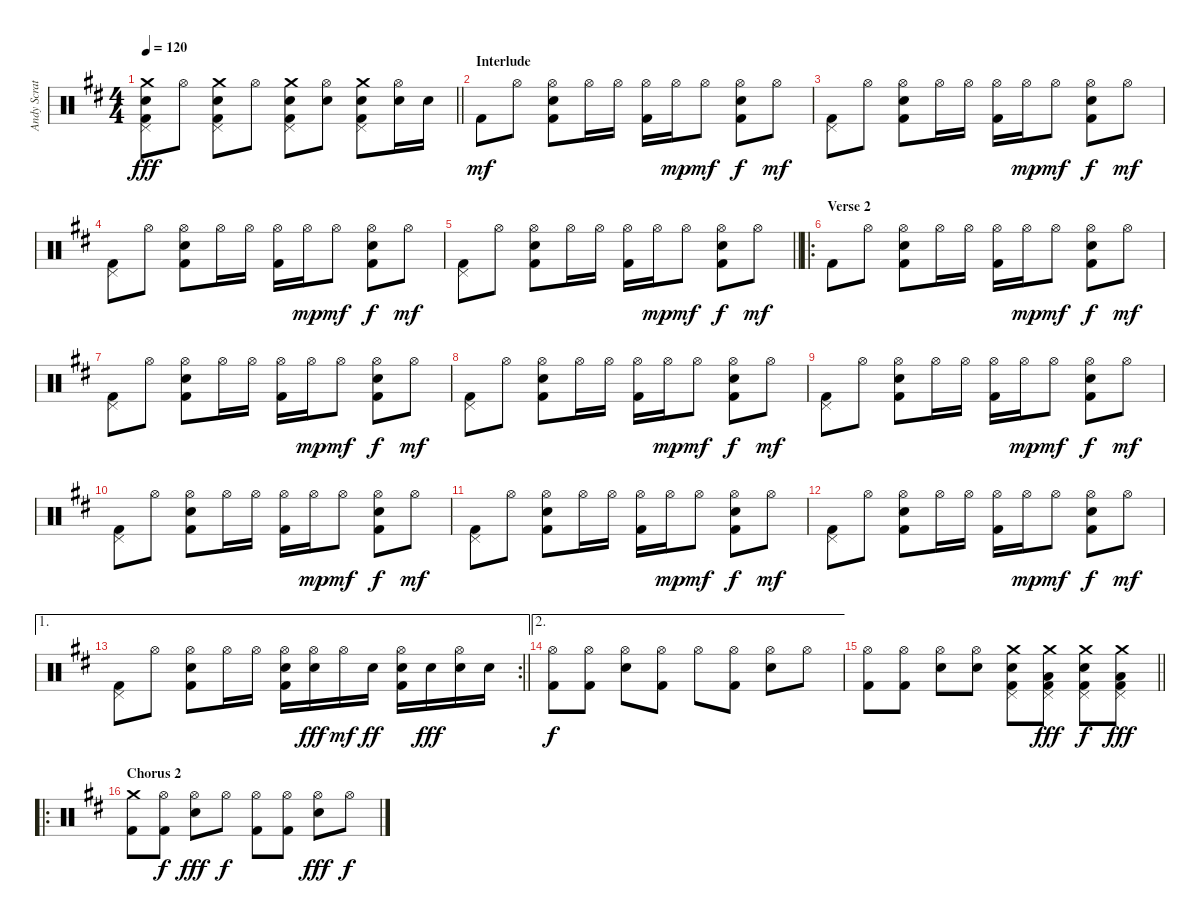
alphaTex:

\track ("Andy Scratchen (Drums)" "Andy Scrat") {instrument percussion}
\staff {score}
\articulation defaults
\ts (4 4)
\tempo 120
\clef neutral
\barLineRight lightlight
\ks bminor
("Crash medium (hit)" "Pedal Hi-Hat (hit)" "Snare (hit) 2" "Kick (hit) 2").8{dy fff} "Hi-Hat (open)".8 ("Crash medium (hit)" "Pedal Hi-Hat (hit)" "Snare (hit) 2" "Kick (hit) 2").8 "Hi-Hat (open)".8 ("Crash medium (hit)" "Pedal Hi-Hat (hit)" "Snare (hit) 2" "Kick (hit) 2").8 ("Hi-Hat (open)" "Snare (hit) 2").8 ("Crash medium (hit)" "Pedal Hi-Hat (hit)" "Snare (hit) 2" "Kick (hit) 2").8 ("Hi-Hat (open)" "Snare (hit) 2").16 "Snare (hit) 2".16 |
\section ("" "Interlude")
"Kick (hit) 2".8{dy mf} "Hi-Hat (open)".8 ("Hi-Hat (open)" "Snare (hit) 2" "Kick (hit) 2").8 "Hi-Hat (open)".16 "Hi-Hat (open)".16 ("Hi-Hat (open)" "Kick (hit) 2").16 "Hi-Hat (open)".16{dy mp} "Hi-Hat (open)".8{dy mf} ("Hi-Hat (open)" "Snare (hit) 2" "Kick (hit) 2").8{dy f} "Hi-Hat (open)".8{dy mf} |
("Pedal Hi-Hat (hit)" "Kick (hit) 2").8 "Hi-Hat (open)".8 ("Hi-Hat (open)" "Snare (hit) 2" "Kick (hit) 2").8 "Hi-Hat (open)".16 "Hi-Hat (open)".16 ("Hi-Hat (open)" "Kick (hit) 2").16 "Hi-Hat (open)".16{dy mp} "Hi-Hat (open)".8{dy mf} ("Hi-Hat (open)" "Snare (hit) 2" "Kick (hit) 2").8{dy f} "Hi-Hat (open)".8{dy mf} |
("Pedal Hi-Hat (hit)" "Kick (hit) 2").8 "Hi-Hat (open)".8 ("Hi-Hat (open)" "Snare (hit) 2" "Kick (hit) 2").8 "Hi-Hat (open)".16 "Hi-Hat (open)".16 ("Hi-Hat (open)" "Kick (hit) 2").16 "Hi-Hat (open)".16{dy mp} "Hi-Hat (open)".8{dy mf} ("Hi-Hat (open)" "Snare (hit) 2" "Kick (hit) 2").8{dy f} "Hi-Hat (open)".8{dy mf} |
\barLineRight lightlight
("Pedal Hi-Hat (hit)" "Kick (hit) 2").8 "Hi-Hat (open)".8 ("Hi-Hat (open)" "Snare (hit) 2" "Kick (hit) 2").8 "Hi-Hat (open)".16 "Hi-Hat (open)".16 ("Hi-Hat (open)" "Kick (hit) 2").16 "Hi-Hat (open)".16{dy mp} "Hi-Hat (open)".8{dy mf} ("Hi-Hat (open)" "Snare (hit) 2" "Kick (hit) 2").8{dy f} "Hi-Hat (open)".8{dy mf} |
\ro
\section ("" "Verse 2")
"Kick (hit) 2".8 "Hi-Hat (open)".8 ("Hi-Hat (open)" "Snare (hit) 2" "Kick (hit) 2").8 "Hi-Hat (open)".16 "Hi-Hat (open)".16 ("Hi-Hat (open)" "Kick (hit) 2").16 "Hi-Hat (open)".16{dy mp} "Hi-Hat (open)".8{dy mf} ("Hi-Hat (open)" "Snare (hit) 2" "Kick (hit) 2").8{dy f} "Hi-Hat (open)".8{dy mf} |
("Pedal Hi-Hat (hit)" "Kick (hit) 2").8 "Hi-Hat (open)".8 ("Hi-Hat (open)" "Snare (hit) 2" "Kick (hit) 2").8 "Hi-Hat (open)".16 "Hi-Hat (open)".16 ("Hi-Hat (open)" "Kick (hit) 2").16 "Hi-Hat (open)".16{dy mp} "Hi-Hat (open)".8{dy mf} ("Hi-Hat (open)" "Snare (hit) 2" "Kick (hit) 2").8{dy f} "Hi-Hat (open)".8{dy mf} |
("Pedal Hi-Hat (hit)" "Kick (hit) 2").8 "Hi-Hat (open)".8 ("Hi-Hat (open)" "Snare (hit) 2" "Kick (hit) 2").8 "Hi-Hat (open)".16 "Hi-Hat (open)".16 ("Hi-Hat (open)" "Kick (hit) 2").16 "Hi-Hat (open)".16{dy mp} "Hi-Hat (open)".8{dy mf} ("Hi-Hat (open)" "Snare (hit) 2" "Kick (hit) 2").8{dy f} "Hi-Hat (open)".8{dy mf} |
("Pedal Hi-Hat (hit)" "Kick (hit) 2").8 "Hi-Hat (open)".8 ("Hi-Hat (open)" "Snare (hit) 2" "Kick (hit) 2").8 "Hi-Hat (open)".16 "Hi-Hat (open)".16 ("Hi-Hat (open)" "Kick (hit) 2").16 "Hi-Hat (open)".16{dy mp} "Hi-Hat (open)".8{dy mf} ("Hi-Hat (open)" "Snare (hit) 2" "Kick (hit) 2").8{dy f} "Hi-Hat (open)".8{dy mf} |
("Pedal Hi-Hat (hit)" "Kick (hit) 2").8 "Hi-Hat (open)".8 ("Hi-Hat (open)" "Snare (hit) 2" "Kick (hit) 2").8 "Hi-Hat (open)".16 "Hi-Hat (open)".16 ("Hi-Hat (open)" "Kick (hit) 2").16 "Hi-Hat (open)".16{dy mp} "Hi-Hat (open)".8{dy mf} ("Hi-Hat (open)" "Snare (hit) 2" "Kick (hit) 2").8{dy f} "Hi-Hat (open)".8{dy mf} |
("Pedal Hi-Hat (hit)" "Kick (hit) 2").8 "Hi-Hat (open)".8 ("Hi-Hat (open)" "Snare (hit) 2" "Kick (hit) 2").8 "Hi-Hat (open)".16 "Hi-Hat (open)".16 ("Hi-Hat (open)" "Kick (hit) 2").16 "Hi-Hat (open)".16{dy mp} "Hi-Hat (open)".8{dy mf} ("Hi-Hat (open)" "Snare (hit) 2" "Kick (hit) 2").8{dy f} "Hi-Hat (open)".8{dy mf} |
("Pedal Hi-Hat (hit)" "Kick (hit) 2").8 "Hi-Hat (open)".8 ("Hi-Hat (open)" "Snare (hit) 2" "Kick (hit) 2").8 "Hi-Hat (open)".16 "Hi-Hat (open)".16 ("Hi-Hat (open)" "Kick (hit) 2").16 "Hi-Hat (open)".16{dy mp} "Hi-Hat (open)".8{dy mf} ("Hi-Hat (open)" "Snare (hit) 2" "Kick (hit) 2").8{dy f} "Hi-Hat (open)".8{dy mf} |
\ae 1
\rc 2
\barLineRight lightlight
("Pedal Hi-Hat (hit)" "Kick (hit) 2").8 "Hi-Hat (open)".8 ("Hi-Hat (open)" "Snare (hit) 2" "Kick (hit) 2").8 "Hi-Hat (open)".16 "Hi-Hat (open)".16 ("Hi-Hat (open)" "Snare (hit) 2" "Kick (hit) 2").16 ("Hi-Hat (open)" "Snare (hit) 2").16{dy fff} "Hi-Hat (open)".16{dy mf} "Snare (hit) 2".16{dy ff} ("Hi-Hat (open)" "Snare (hit) 2" "Kick (hit) 2").16 "Snare (hit) 2".16{dy fff} ("Hi-Hat (open)" "Snare (hit) 2").16 "Snare (hit) 2".16 |
\ae 2
("Hi-Hat (open)" "Kick (hit) 2").8{dy f} ("Hi-Hat (open)" "Kick (hit) 2").8 ("Hi-Hat (open)" "Snare (hit) 2").8 ("Hi-Hat (open)" "Kick (hit) 2").8 "Hi-Hat (open)".8 ("Hi-Hat (open)" "Kick (hit) 2").8 ("Hi-Hat (open)" "Snare (hit) 2").8 "Hi-Hat (open)".8 |
\barLineRight lightlight
("Hi-Hat (open)" "Kick (hit) 2").8 ("Hi-Hat (open)" "Kick (hit) 2").8 ("Hi-Hat (open)" "Snare (hit) 2").8 ("Hi-Hat (open)" "Snare (hit) 2").8 ("Crash medium (hit)" "Pedal Hi-Hat (hit)" "Snare (hit) 2" "Kick (hit) 2").8 ("Crash medium (hit)" "Pedal Hi-Hat (hit)" "Low Floor Tom (hit)" "Kick (hit) 2").8{dy fff} ("Crash medium (hit)" "Pedal Hi-Hat (hit)" "Snare (hit) 2" "Kick (hit) 2").8{dy f} ("Crash medium (hit)" "Pedal Hi-Hat (hit)" "Low Floor Tom (hit)" "Kick (hit) 2").8{dy fff} |
\ro
\section ("" "Chorus 2")
("Crash medium (hit)" "Kick (hit) 2").8{volume 13} ("Hi-Hat (open)" "Kick (hit) 2").8{dy f} ("Hi-Hat (open)" "Snare (hit) 2").8{dy fff} "Hi-Hat (open)".8{dy f} ("Hi-Hat (open)" "Kick (hit) 2").8 ("Hi-Hat (open)" "Kick (hit) 2").8 ("Hi-Hat (open)" "Snare (hit) 2").8{dy fff} "Hi-Hat (open)".8{dy f}
